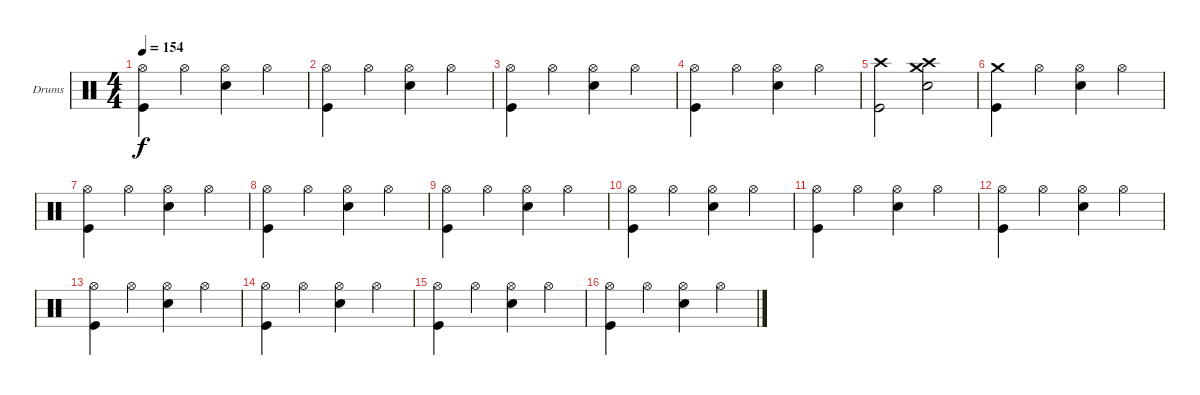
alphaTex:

\bracketExtendMode groupsimilarinstruments
\firstSystemTrackNameOrientation horizontal
\otherSystemsTrackNameOrientation horizontal
\track ("Drumkit (Christoph)" "Drums") {instrument percussion}
\staff {score}
\articulation defaults
\ts (4 4)
\tempo 154
\clef neutral
\ks c
("Hi-Hat (open)" "Kick (hit)").4{dy f} "Hi-Hat (open)".4 ("Hi-Hat (open)" "Snare (hit) 2").4 "Hi-Hat (open)".4 |
("Hi-Hat (open)" "Kick (hit)").4 "Hi-Hat (open)".4 ("Hi-Hat (open)" "Snare (hit) 2").4 "Hi-Hat (open)".4 |
("Hi-Hat (open)" "Kick (hit)").4 "Hi-Hat (open)".4 ("Hi-Hat (open)" "Snare (hit) 2").4 "Hi-Hat (open)".4 |
("Hi-Hat (open)" "Kick (hit)").4 "Hi-Hat (open)".4 ("Hi-Hat (open)" "Snare (hit) 2").4 "Hi-Hat (open)".4 |
("Crash high (hit)" "Kick (hit)").2 ("Crash medium (hit)" "Crash high (hit)" "Snare (hit) 2").2 |
("Crash medium (hit)" "Kick (hit)").4 "Hi-Hat (open)".4 ("Hi-Hat (open)" "Snare (hit) 2").4 "Hi-Hat (open)".4 |
("Hi-Hat (open)" "Kick (hit)").4 "Hi-Hat (open)".4 ("Hi-Hat (open)" "Snare (hit) 2").4 "Hi-Hat (open)".4 |
("Hi-Hat (open)" "Kick (hit)").4 "Hi-Hat (open)".4 ("Hi-Hat (open)" "Snare (hit) 2").4 "Hi-Hat (open)".4 |
("Hi-Hat (open)" "Kick (hit)").4 "Hi-Hat (open)".4 ("Hi-Hat (open)" "Snare (hit) 2").4 "Hi-Hat (open)".4 |
("Hi-Hat (open)" "Kick (hit)").4 "Hi-Hat (open)".4 ("Hi-Hat (open)" "Snare (hit) 2").4 "Hi-Hat (open)".4 |
("Hi-Hat (open)" "Kick (hit)").4 "Hi-Hat (open)".4 ("Hi-Hat (open)" "Snare (hit) 2").4 "Hi-Hat (open)".4 |
("Hi-Hat (open)" "Kick (hit)").4 "Hi-Hat (open)".4 ("Hi-Hat (open)" "Snare (hit) 2").4 "Hi-Hat (open)".4 |
("Hi-Hat (open)" "Kick (hit)").4 "Hi-Hat (open)".4 ("Hi-Hat (open)" "Snare (hit) 2").4 "Hi-Hat (open)".4 |
("Hi-Hat (open)" "Kick (hit)").4 "Hi-Hat (open)".4 ("Hi-Hat (open)" "Snare (hit) 2").4 "Hi-Hat (open)".4 |
("Hi-Hat (open)" "Kick (hit)").4 "Hi-Hat (open)".4 ("Hi-Hat (open)" "Snare (hit) 2").4 "Hi-Hat (open)".4 |
("Hi-Hat (open)" "Kick (hit)").4 "Hi-Hat (open)".4 ("Hi-Hat (open)" "Snare (hit) 2").4 "Hi-Hat (open)".4
